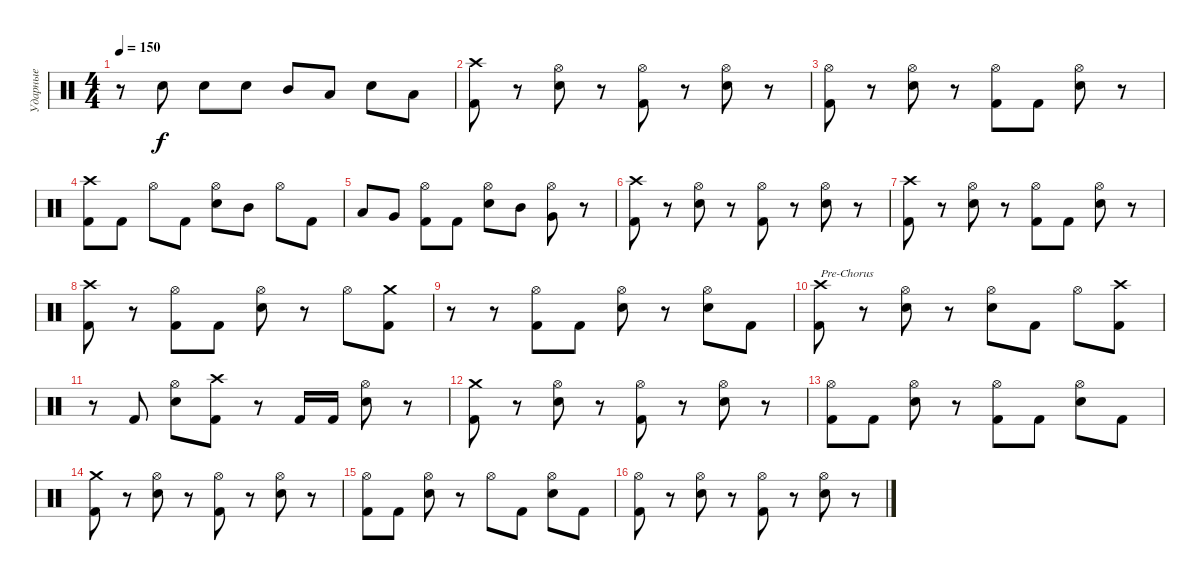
\track ("Ударные" "Ударные") {instrument percussion}
\staff
\articulation defaults
\ts (4 4)
\tempo 150
\clef neutral
\ks c
r.8{dy f} "Snare (hit) 2".8 "Snare (hit) 2".8 "Snare (hit) 2".8 "Mid Tom (hit)".8 "Low Tom (hit)".8 "Snare (hit) 2".8 "Low Tom (hit)".8 |
("Kick (hit) 2" "Crash high (hit)").8 r.8 ("Snare (hit) 2" "Hi-Hat (open)").8 r.8 ("Kick (hit) 2" "Hi-Hat (open)").8 r.8 ("Snare (hit) 2" "Hi-Hat (open)").8 r.8 |
("Kick (hit) 2" "Hi-Hat (open)").8 r.8 ("Snare (hit) 2" "Hi-Hat (open)").8 r.8 ("Kick (hit) 2" "Hi-Hat (open)").8 "Kick (hit) 2".8 ("Snare (hit) 2" "Hi-Hat (open)").8 r.8 |
("Kick (hit) 2" "Crash high (hit)").8 "Kick (hit) 2".8 "Hi-Hat (open)".8 "Kick (hit) 2".8 ("Snare (hit) 2" "Hi-Hat (open)").8 "Mid Tom (hit)".8 "Hi-Hat (open)".8 "Kick (hit) 2".8 |
"Low Tom (hit)".8 "Very Low Tom (hit)".8 ("Kick (hit) 2" "Hi-Hat (open)").8 "Kick (hit) 2".8 ("Snare (hit) 2" "Hi-Hat (open)").8 "Mid Tom (hit)".8 ("Very Low Tom (hit)" "Hi-Hat (open)").8 r.8 |
("Kick (hit) 2" "Crash high (hit)").8 r.8 ("Snare (hit) 2" "Hi-Hat (open)").8 r.8 ("Kick (hit) 2" "Hi-Hat (open)").8 r.8 ("Snare (hit) 2" "Hi-Hat (open)").8 r.8 |
("Kick (hit) 2" "Crash high (hit)").8 r.8 ("Snare (hit) 2" "Hi-Hat (open)").8 r.8 ("Kick (hit) 2" "Hi-Hat (open)").8 "Kick (hit) 2".8 ("Snare (hit) 2" "Hi-Hat (open)").8 r.8 |
("Kick (hit) 2" "Crash high (hit)").8 r.8 ("Kick (hit) 2" "Hi-Hat (open)").8 "Kick (hit) 2".8 ("Snare (hit) 2" "Hi-Hat (open)").8 r.8 "Hi-Hat (open)".8 ("Kick (hit) 2" "Crash medium (hit)").8 |
r.8 r.8 ("Kick (hit) 2" "Hi-Hat (open)").8 "Kick (hit) 2".8 ("Snare (hit) 2" "Hi-Hat (open)").8 r.8 ("Snare (hit) 2" "Hi-Hat (open)").8 "Kick (hit) 2".8 |
("Kick (hit) 2" "Crash high (hit)").8{txt "Pre-Chorus"} r.8 ("Snare (hit) 2" "Hi-Hat (open)").8 r.8 ("Snare (hit) 2" "Hi-Hat (open)").8 "Kick (hit) 2".8 "Hi-Hat (open)".8 ("Kick (hit) 2" "Crash high (hit)").8 |
r.8 "Kick (hit) 2".8 ("Snare (hit) 2" "Hi-Hat (open)").8 ("Kick (hit) 2" "Crash high (hit)").8 r.8 "Kick (hit) 2".16 "Kick (hit) 2".16 ("Snare (hit) 2" "Hi-Hat (open)").8 r.8 |
("Kick (hit) 2" "Crash medium (hit)").8 r.8 ("Snare (hit) 2" "Hi-Hat (open)").8 r.8 ("Kick (hit) 2" "Hi-Hat (open)").8 r.8 ("Snare (hit) 2" "Hi-Hat (open)").8 r.8 |
("Kick (hit) 2" "Hi-Hat (open)").8 "Kick (hit) 2".8 ("Snare (hit) 2" "Hi-Hat (open)").8 r.8 ("Kick (hit) 2" "Hi-Hat (open)").8 "Kick (hit) 2".8 ("Snare (hit) 2" "Hi-Hat (open)").8 "Kick (hit) 2".8 |
("Kick (hit) 2" "Crash medium (hit)").8 r.8 ("Snare (hit) 2" "Hi-Hat (open)").8 r.8 ("Kick (hit) 2" "Hi-Hat (open)").8 r.8 ("Snare (hit) 2" "Hi-Hat (open)").8 r.8 |
("Kick (hit) 2" "Hi-Hat (open)").8 "Kick (hit) 2".8 ("Snare (hit) 2" "Hi-Hat (open)").8 r.8 "Hi-Hat (open)".8 "Kick (hit) 2".8 ("Snare (hit) 2" "Hi-Hat (open)").8 "Kick (hit) 2".8 |
("Kick (hit) 2" "Hi-Hat (open)").8 r.8 ("Snare (hit) 2" "Hi-Hat (open)").8 r.8 ("Kick (hit) 2" "Hi-Hat (open)").8 r.8 ("Snare (hit) 2" "Hi-Hat (open)").8 r.8
